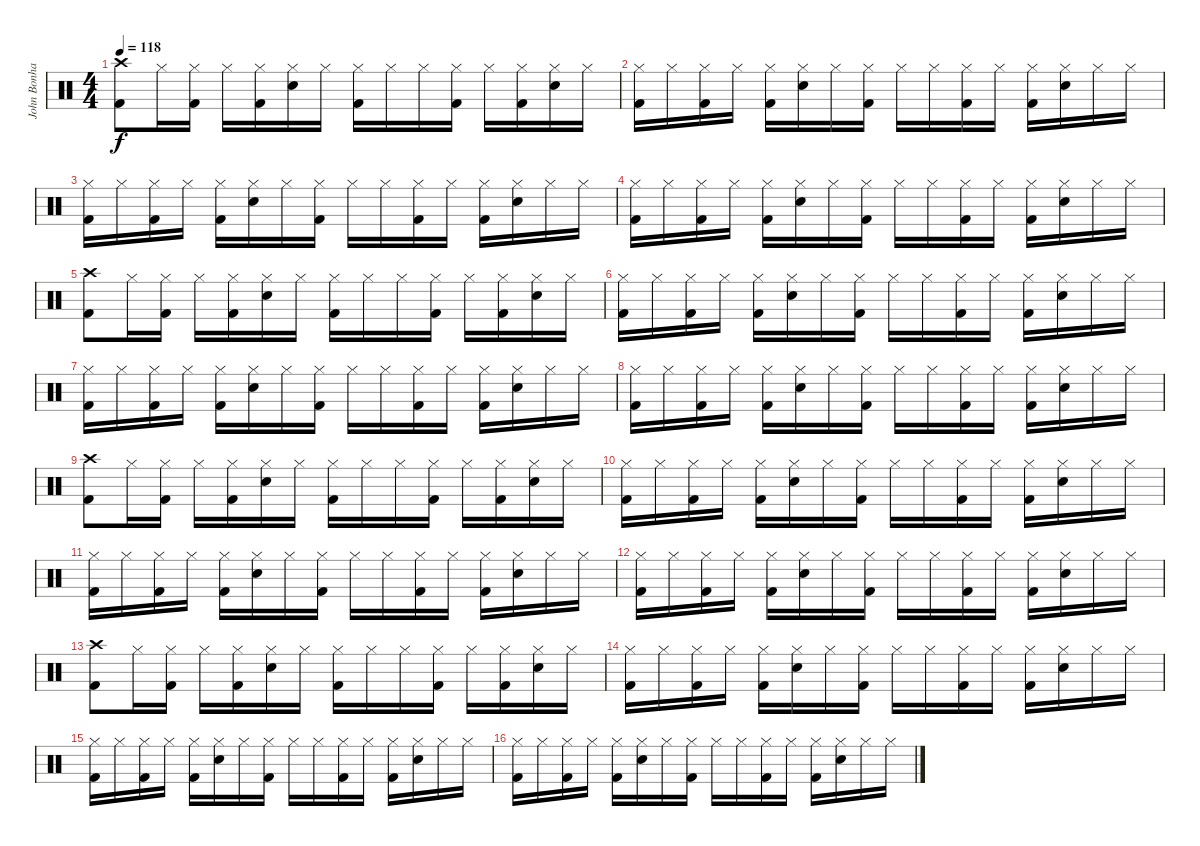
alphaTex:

\track ("John Bonham (Bateria)" "John Bonha") {instrument percussion}
\staff {score}
\articulation defaults
\ts (4 4)
\tempo 118
\clef neutral
\ks c
("Crash high (hit)" "Kick (hit) 2").8{dy f} "Hi-Hat (closed)".16 ("Kick (hit) 2" "Hi-Hat (closed)").16 "Hi-Hat (closed)".16 ("Kick (hit) 2" "Hi-Hat (closed)").16 ("Snare (hit) 2" "Hi-Hat (closed)").16 "Hi-Hat (closed)".16 ("Kick (hit) 2" "Hi-Hat (closed)").16 "Hi-Hat (closed)".16 "Hi-Hat (closed)".16 ("Kick (hit) 2" "Hi-Hat (closed)").16 "Hi-Hat (closed)".16 ("Kick (hit) 2" "Hi-Hat (closed)").16 ("Snare (hit) 2" "Hi-Hat (closed)").16 "Hi-Hat (closed)".16 |
("Kick (hit) 2" "Hi-Hat (closed)").16 "Hi-Hat (closed)".16 ("Kick (hit) 2" "Hi-Hat (closed)").16 "Hi-Hat (closed)".16 ("Kick (hit) 2" "Hi-Hat (closed)").16 ("Snare (hit) 2" "Hi-Hat (closed)").16 "Hi-Hat (closed)".16 ("Kick (hit) 2" "Hi-Hat (closed)").16 "Hi-Hat (closed)".16 "Hi-Hat (closed)".16 ("Kick (hit) 2" "Hi-Hat (closed)").16 "Hi-Hat (closed)".16 ("Kick (hit) 2" "Hi-Hat (closed)").16 ("Snare (hit) 2" "Hi-Hat (closed)").16 "Hi-Hat (closed)".16 "Hi-Hat (closed)".16 |
("Kick (hit) 2" "Hi-Hat (closed)").16 "Hi-Hat (closed)".16 ("Kick (hit) 2" "Hi-Hat (closed)").16 "Hi-Hat (closed)".16 ("Kick (hit) 2" "Hi-Hat (closed)").16 ("Snare (hit) 2" "Hi-Hat (closed)").16 "Hi-Hat (closed)".16 ("Kick (hit) 2" "Hi-Hat (closed)").16 "Hi-Hat (closed)".16 "Hi-Hat (closed)".16 ("Kick (hit) 2" "Hi-Hat (closed)").16 "Hi-Hat (closed)".16 ("Kick (hit) 2" "Hi-Hat (closed)").16 ("Snare (hit) 2" "Hi-Hat (closed)").16 "Hi-Hat (closed)".16 "Hi-Hat (closed)".16 |
("Kick (hit) 2" "Hi-Hat (closed)").16 "Hi-Hat (closed)".16 ("Kick (hit) 2" "Hi-Hat (closed)").16 "Hi-Hat (closed)".16 ("Kick (hit) 2" "Hi-Hat (closed)").16 ("Snare (hit) 2" "Hi-Hat (closed)").16 "Hi-Hat (closed)".16 ("Kick (hit) 2" "Hi-Hat (closed)").16 "Hi-Hat (closed)".16 "Hi-Hat (closed)".16 ("Kick (hit) 2" "Hi-Hat (closed)").16 "Hi-Hat (closed)".16 ("Kick (hit) 2" "Hi-Hat (closed)").16 ("Snare (hit) 2" "Hi-Hat (closed)").16 "Hi-Hat (closed)".16 "Hi-Hat (closed)".16 |
("Crash high (hit)" "Kick (hit) 2").8 "Hi-Hat (closed)".16 ("Kick (hit) 2" "Hi-Hat (closed)").16 "Hi-Hat (closed)".16 ("Kick (hit) 2" "Hi-Hat (closed)").16 ("Snare (hit) 2" "Hi-Hat (closed)").16 "Hi-Hat (closed)".16 ("Kick (hit) 2" "Hi-Hat (closed)").16 "Hi-Hat (closed)".16 "Hi-Hat (closed)".16 ("Kick (hit) 2" "Hi-Hat (closed)").16 "Hi-Hat (closed)".16 ("Kick (hit) 2" "Hi-Hat (closed)").16 ("Snare (hit) 2" "Hi-Hat (closed)").16 "Hi-Hat (closed)".16 |
("Kick (hit) 2" "Hi-Hat (closed)").16 "Hi-Hat (closed)".16 ("Kick (hit) 2" "Hi-Hat (closed)").16 "Hi-Hat (closed)".16 ("Kick (hit) 2" "Hi-Hat (closed)").16 ("Snare (hit) 2" "Hi-Hat (closed)").16 "Hi-Hat (closed)".16 ("Kick (hit) 2" "Hi-Hat (closed)").16 "Hi-Hat (closed)".16 "Hi-Hat (closed)".16 ("Kick (hit) 2" "Hi-Hat (closed)").16 "Hi-Hat (closed)".16 ("Kick (hit) 2" "Hi-Hat (closed)").16 ("Snare (hit) 2" "Hi-Hat (closed)").16 "Hi-Hat (closed)".16 "Hi-Hat (closed)".16 |
("Kick (hit) 2" "Hi-Hat (closed)").16 "Hi-Hat (closed)".16 ("Kick (hit) 2" "Hi-Hat (closed)").16 "Hi-Hat (closed)".16 ("Kick (hit) 2" "Hi-Hat (closed)").16 ("Snare (hit) 2" "Hi-Hat (closed)").16 "Hi-Hat (closed)".16 ("Kick (hit) 2" "Hi-Hat (closed)").16 "Hi-Hat (closed)".16 "Hi-Hat (closed)".16 ("Kick (hit) 2" "Hi-Hat (closed)").16 "Hi-Hat (closed)".16 ("Kick (hit) 2" "Hi-Hat (closed)").16 ("Snare (hit) 2" "Hi-Hat (closed)").16 "Hi-Hat (closed)".16 "Hi-Hat (closed)".16 |
("Kick (hit) 2" "Hi-Hat (closed)").16 "Hi-Hat (closed)".16 ("Kick (hit) 2" "Hi-Hat (closed)").16 "Hi-Hat (closed)".16 ("Kick (hit) 2" "Hi-Hat (closed)").16 ("Snare (hit) 2" "Hi-Hat (closed)").16 "Hi-Hat (closed)".16 ("Kick (hit) 2" "Hi-Hat (closed)").16 "Hi-Hat (closed)".16 "Hi-Hat (closed)".16 ("Kick (hit) 2" "Hi-Hat (closed)").16 "Hi-Hat (closed)".16 ("Kick (hit) 2" "Hi-Hat (closed)").16 ("Snare (hit) 2" "Hi-Hat (closed)").16 "Hi-Hat (closed)".16 "Hi-Hat (closed)".16 |
("Crash high (hit)" "Kick (hit) 2").8 "Hi-Hat (closed)".16 ("Kick (hit) 2" "Hi-Hat (closed)").16 "Hi-Hat (closed)".16 ("Kick (hit) 2" "Hi-Hat (closed)").16 ("Snare (hit) 2" "Hi-Hat (closed)").16 "Hi-Hat (closed)".16 ("Kick (hit) 2" "Hi-Hat (closed)").16 "Hi-Hat (closed)".16 "Hi-Hat (closed)".16 ("Kick (hit) 2" "Hi-Hat (closed)").16 "Hi-Hat (closed)".16 ("Kick (hit) 2" "Hi-Hat (closed)").16 ("Snare (hit) 2" "Hi-Hat (closed)").16 "Hi-Hat (closed)".16 |
("Kick (hit) 2" "Hi-Hat (closed)").16 "Hi-Hat (closed)".16 ("Kick (hit) 2" "Hi-Hat (closed)").16 "Hi-Hat (closed)".16 ("Kick (hit) 2" "Hi-Hat (closed)").16 ("Snare (hit) 2" "Hi-Hat (closed)").16 "Hi-Hat (closed)".16 ("Kick (hit) 2" "Hi-Hat (closed)").16 "Hi-Hat (closed)".16 "Hi-Hat (closed)".16 ("Kick (hit) 2" "Hi-Hat (closed)").16 "Hi-Hat (closed)".16 ("Kick (hit) 2" "Hi-Hat (closed)").16 ("Snare (hit) 2" "Hi-Hat (closed)").16 "Hi-Hat (closed)".16 "Hi-Hat (closed)".16 |
("Kick (hit) 2" "Hi-Hat (closed)").16 "Hi-Hat (closed)".16 ("Kick (hit) 2" "Hi-Hat (closed)").16 "Hi-Hat (closed)".16 ("Kick (hit) 2" "Hi-Hat (closed)").16 ("Snare (hit) 2" "Hi-Hat (closed)").16 "Hi-Hat (closed)".16 ("Kick (hit) 2" "Hi-Hat (closed)").16 "Hi-Hat (closed)".16 "Hi-Hat (closed)".16 ("Kick (hit) 2" "Hi-Hat (closed)").16 "Hi-Hat (closed)".16 ("Kick (hit) 2" "Hi-Hat (closed)").16 ("Snare (hit) 2" "Hi-Hat (closed)").16 "Hi-Hat (closed)".16 "Hi-Hat (closed)".16 |
("Kick (hit) 2" "Hi-Hat (closed)").16 "Hi-Hat (closed)".16 ("Kick (hit) 2" "Hi-Hat (closed)").16 "Hi-Hat (closed)".16 ("Kick (hit) 2" "Hi-Hat (closed)").16 ("Snare (hit) 2" "Hi-Hat (closed)").16 "Hi-Hat (closed)".16 ("Kick (hit) 2" "Hi-Hat (closed)").16 "Hi-Hat (closed)".16 "Hi-Hat (closed)".16 ("Kick (hit) 2" "Hi-Hat (closed)").16 "Hi-Hat (closed)".16 ("Kick (hit) 2" "Hi-Hat (closed)").16 ("Snare (hit) 2" "Hi-Hat (closed)").16 "Hi-Hat (closed)".16 "Hi-Hat (closed)".16 |
("Crash high (hit)" "Kick (hit) 2").8 "Hi-Hat (closed)".16 ("Kick (hit) 2" "Hi-Hat (closed)").16 "Hi-Hat (closed)".16 ("Kick (hit) 2" "Hi-Hat (closed)").16 ("Snare (hit) 2" "Hi-Hat (closed)").16 "Hi-Hat (closed)".16 ("Kick (hit) 2" "Hi-Hat (closed)").16 "Hi-Hat (closed)".16 "Hi-Hat (closed)".16 ("Kick (hit) 2" "Hi-Hat (closed)").16 "Hi-Hat (closed)".16 ("Kick (hit) 2" "Hi-Hat (closed)").16 ("Snare (hit) 2" "Hi-Hat (closed)").16 "Hi-Hat (closed)".16 |
("Kick (hit) 2" "Hi-Hat (closed)").16 "Hi-Hat (closed)".16 ("Kick (hit) 2" "Hi-Hat (closed)").16 "Hi-Hat (closed)".16 ("Kick (hit) 2" "Hi-Hat (closed)").16 ("Snare (hit) 2" "Hi-Hat (closed)").16 "Hi-Hat (closed)".16 ("Kick (hit) 2" "Hi-Hat (closed)").16 "Hi-Hat (closed)".16 "Hi-Hat (closed)".16 ("Kick (hit) 2" "Hi-Hat (closed)").16 "Hi-Hat (closed)".16 ("Kick (hit) 2" "Hi-Hat (closed)").16 ("Snare (hit) 2" "Hi-Hat (closed)").16 "Hi-Hat (closed)".16 "Hi-Hat (closed)".16 |
("Kick (hit) 2" "Hi-Hat (closed)").16 "Hi-Hat (closed)".16 ("Kick (hit) 2" "Hi-Hat (closed)").16 "Hi-Hat (closed)".16 ("Kick (hit) 2" "Hi-Hat (closed)").16 ("Snare (hit) 2" "Hi-Hat (closed)").16 "Hi-Hat (closed)".16 ("Kick (hit) 2" "Hi-Hat (closed)").16 "Hi-Hat (closed)".16 "Hi-Hat (closed)".16 ("Kick (hit) 2" "Hi-Hat (closed)").16 "Hi-Hat (closed)".16 ("Kick (hit) 2" "Hi-Hat (closed)").16 ("Snare (hit) 2" "Hi-Hat (closed)").16 "Hi-Hat (closed)".16 "Hi-Hat (closed)".16 |
("Kick (hit) 2" "Hi-Hat (closed)").16 "Hi-Hat (closed)".16 ("Kick (hit) 2" "Hi-Hat (closed)").16 "Hi-Hat (closed)".16 ("Kick (hit) 2" "Hi-Hat (closed)").16 ("Snare (hit) 2" "Hi-Hat (closed)").16 "Hi-Hat (closed)".16 ("Kick (hit) 2" "Hi-Hat (closed)").16 "Hi-Hat (closed)".16 "Hi-Hat (closed)".16 ("Kick (hit) 2" "Hi-Hat (closed)").16 "Hi-Hat (closed)".16 ("Kick (hit) 2" "Hi-Hat (closed)").16 ("Snare (hit) 2" "Hi-Hat (closed)").16 "Hi-Hat (closed)".16 "Hi-Hat (closed)".16
